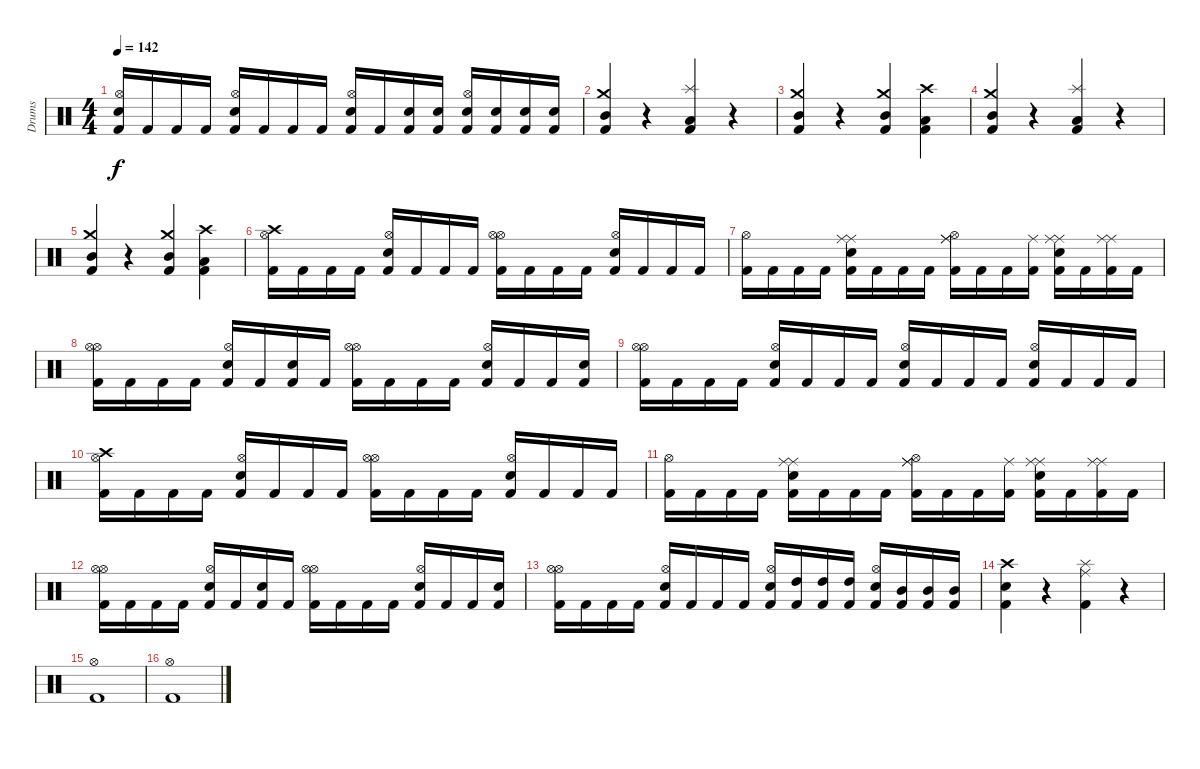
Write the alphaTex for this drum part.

\track ("Drums" "Drums") {instrument percussion}
\staff {score}
\articulation defaults
\ts (4 4)
\tempo 142
\clef neutral
\ks c
("Electric Snare (hit)" "Hi-Hat (open)" "Kick (hit) 2").16{dy f} "Kick (hit) 2".16 "Kick (hit) 2".16 "Kick (hit) 2".16 ("Electric Snare (hit)" "Hi-Hat (open)" "Kick (hit) 2").16 "Kick (hit) 2".16 "Kick (hit) 2".16 "Kick (hit) 2".16 ("Electric Snare (hit)" "Hi-Hat (open)" "Kick (hit) 2").16 "Kick (hit) 2".16 ("Electric Snare (hit)" "Kick (hit) 2").16 ("Electric Snare (hit)" "Kick (hit) 2").16 ("Electric Snare (hit)" "Hi-Hat (open)" "Kick (hit) 2").16 ("Electric Snare (hit)" "Kick (hit) 2").16 ("Electric Snare (hit)" "Kick (hit) 2").16 ("Electric Snare (hit)" "Kick (hit) 2").16 |
("Crash medium (hit)" "Mid Tom (hit)" "Kick (hit) 2").4 r.4 ("Splash (hit)" "Low Tom (hit)" "Kick (hit) 2").4 r.4 |
("Crash medium (hit)" "Mid Tom (hit)" "Kick (hit) 2").4 r.4 ("Crash medium (hit)" "Mid Tom (hit)" "Kick (hit) 2").4 ("Crash high (hit)" "Low Tom (hit)" "Kick (hit) 2").4 |
("Crash medium (hit)" "Mid Tom (hit)" "Kick (hit) 2").4 r.4 ("Splash (hit)" "Low Tom (hit)" "Kick (hit) 2").4 r.4 |
("Crash medium (hit)" "Mid Tom (hit)" "Kick (hit) 2").4 r.4 ("Crash medium (hit)" "Mid Tom (hit)" "Kick (hit) 2").4 ("Crash high (hit)" "Low Tom (hit)" "Kick (hit) 2").4 |
("Crash high (hit)" "Hi-Hat (open)" "Kick (hit) 2").16 "Kick (hit) 2".16 "Kick (hit) 2".16 "Kick (hit) 2".16 ("Hi-Hat (open)" "Electric Snare (hit)" "Kick (hit) 2").16 "Kick (hit) 2".16 "Kick (hit) 2".16 "Kick (hit) 2".16 ("Hi-Hat (open)" "Hi-Hat (open)" "Kick (hit) 2").16 "Kick (hit) 2".16 "Kick (hit) 2".16 "Kick (hit) 2".16 ("Hi-Hat (open)" "Electric Snare (hit)" "Kick (hit) 2").16 "Kick (hit) 2".16 "Kick (hit) 2".16 "Kick (hit) 2".16 |
("Hi-Hat (open)" "Kick (hit) 2").16 "Kick (hit) 2".16 "Kick (hit) 2".16 "Kick (hit) 2".16 ("Ride (middle)" "Ride (middle)" "Electric Snare (hit)" "Kick (hit) 2").16 "Kick (hit) 2".16 "Kick (hit) 2".16 "Kick (hit) 2".16 ("Ride (middle)" "Ride (middle)" "Hi-Hat (open)" "Kick (hit) 2").16 "Kick (hit) 2".16 "Kick (hit) 2".16 ("Ride (middle)" "Kick (hit) 2").16 ("Ride (middle)" "Ride (middle)" "Electric Snare (hit)" "Kick (hit) 2").16 "Kick (hit) 2".16 ("Ride (middle)" "Ride (middle)" "Kick (hit) 2").16 "Kick (hit) 2".16 |
("Hi-Hat (open)" "Hi-Hat (open)" "Kick (hit) 2").16 "Kick (hit) 2".16 "Kick (hit) 2".16 "Kick (hit) 2".16 ("Hi-Hat (open)" "Electric Snare (hit)" "Kick (hit) 2").16 "Kick (hit) 2".16 ("Electric Snare (hit)" "Kick (hit) 2").16 "Kick (hit) 2".16 ("Hi-Hat (open)" "Hi-Hat (open)" "Kick (hit) 2").16 "Kick (hit) 2".16 "Kick (hit) 2".16 "Kick (hit) 2".16 ("Hi-Hat (open)" "Electric Snare (hit)" "Kick (hit) 2").16 "Kick (hit) 2".16 "Kick (hit) 2".16 ("Electric Snare (hit)" "Kick (hit) 2").16 |
("Hi-Hat (open)" "Hi-Hat (open)" "Kick (hit) 2").16 "Kick (hit) 2".16 "Kick (hit) 2".16 "Kick (hit) 2".16 ("Hi-Hat (open)" "Electric Snare (hit)" "Kick (hit) 2").16 "Kick (hit) 2".16 "Kick (hit) 2".16 "Kick (hit) 2".16 ("Hi-Hat (open)" "Electric Snare (hit)" "Kick (hit) 2").16 "Kick (hit) 2".16 "Kick (hit) 2".16 "Kick (hit) 2".16 ("Hi-Hat (open)" "Electric Snare (hit)" "Kick (hit) 2").16 "Kick (hit) 2".16 "Kick (hit) 2".16 "Kick (hit) 2".16 |
("Crash high (hit)" "Hi-Hat (open)" "Kick (hit) 2").16 "Kick (hit) 2".16 "Kick (hit) 2".16 "Kick (hit) 2".16 ("Hi-Hat (open)" "Electric Snare (hit)" "Kick (hit) 2").16 "Kick (hit) 2".16 "Kick (hit) 2".16 "Kick (hit) 2".16 ("Hi-Hat (open)" "Hi-Hat (open)" "Kick (hit) 2").16 "Kick (hit) 2".16 "Kick (hit) 2".16 "Kick (hit) 2".16 ("Hi-Hat (open)" "Electric Snare (hit)" "Kick (hit) 2").16 "Kick (hit) 2".16 "Kick (hit) 2".16 "Kick (hit) 2".16 |
("Hi-Hat (open)" "Kick (hit) 2").16 "Kick (hit) 2".16 "Kick (hit) 2".16 "Kick (hit) 2".16 ("Ride (middle)" "Ride (middle)" "Electric Snare (hit)" "Kick (hit) 2").16 "Kick (hit) 2".16 "Kick (hit) 2".16 "Kick (hit) 2".16 ("Ride (middle)" "Ride (middle)" "Hi-Hat (open)" "Kick (hit) 2").16 "Kick (hit) 2".16 "Kick (hit) 2".16 ("Ride (middle)" "Kick (hit) 2").16 ("Ride (middle)" "Ride (middle)" "Electric Snare (hit)" "Kick (hit) 2").16 "Kick (hit) 2".16 ("Ride (middle)" "Ride (middle)" "Kick (hit) 2").16 "Kick (hit) 2".16 |
("Hi-Hat (open)" "Hi-Hat (open)" "Kick (hit) 2").16 "Kick (hit) 2".16 "Kick (hit) 2".16 "Kick (hit) 2".16 ("Hi-Hat (open)" "Electric Snare (hit)" "Kick (hit) 2").16 "Kick (hit) 2".16 ("Electric Snare (hit)" "Kick (hit) 2").16 "Kick (hit) 2".16 ("Hi-Hat (open)" "Hi-Hat (open)" "Kick (hit) 2").16 "Kick (hit) 2".16 "Kick (hit) 2".16 "Kick (hit) 2".16 ("Hi-Hat (open)" "Electric Snare (hit)" "Kick (hit) 2").16 "Kick (hit) 2".16 "Kick (hit) 2".16 ("Electric Snare (hit)" "Kick (hit) 2").16 |
("Hi-Hat (open)" "Hi-Hat (open)" "Kick (hit) 2").16 "Kick (hit) 2".16 "Kick (hit) 2".16 "Kick (hit) 2".16 ("Hi-Hat (open)" "Electric Snare (hit)" "Kick (hit) 2").16 "Kick (hit) 2".16 "Kick (hit) 2".16 "Kick (hit) 2".16 ("Hi-Hat (open)" "Electric Snare (hit)" "Kick (hit) 2").16 ("High Tom (hit)" "Kick (hit) 2").16 ("High Tom (hit)" "Kick (hit) 2").16 ("High Tom (hit)" "Kick (hit) 2").16 ("Hi-Hat (open)" "Electric Snare (hit)" "Kick (hit) 2").16 ("Mid Tom (hit)" "Kick (hit) 2").16 ("Mid Tom (hit)" "Kick (hit) 2").16 ("Mid Tom (hit)" "Kick (hit) 2").16 |
("Crash high (hit)" "Electric Snare (hit)" "Kick (hit) 2").4 r.4 ("Splash (hit)" "Ride (middle)" "Kick (hit) 2").4 r.4 |
("Hi-Hat (open)" "Kick (hit) 2").1 |
("Hi-Hat (open)" "Kick (hit) 2").1
